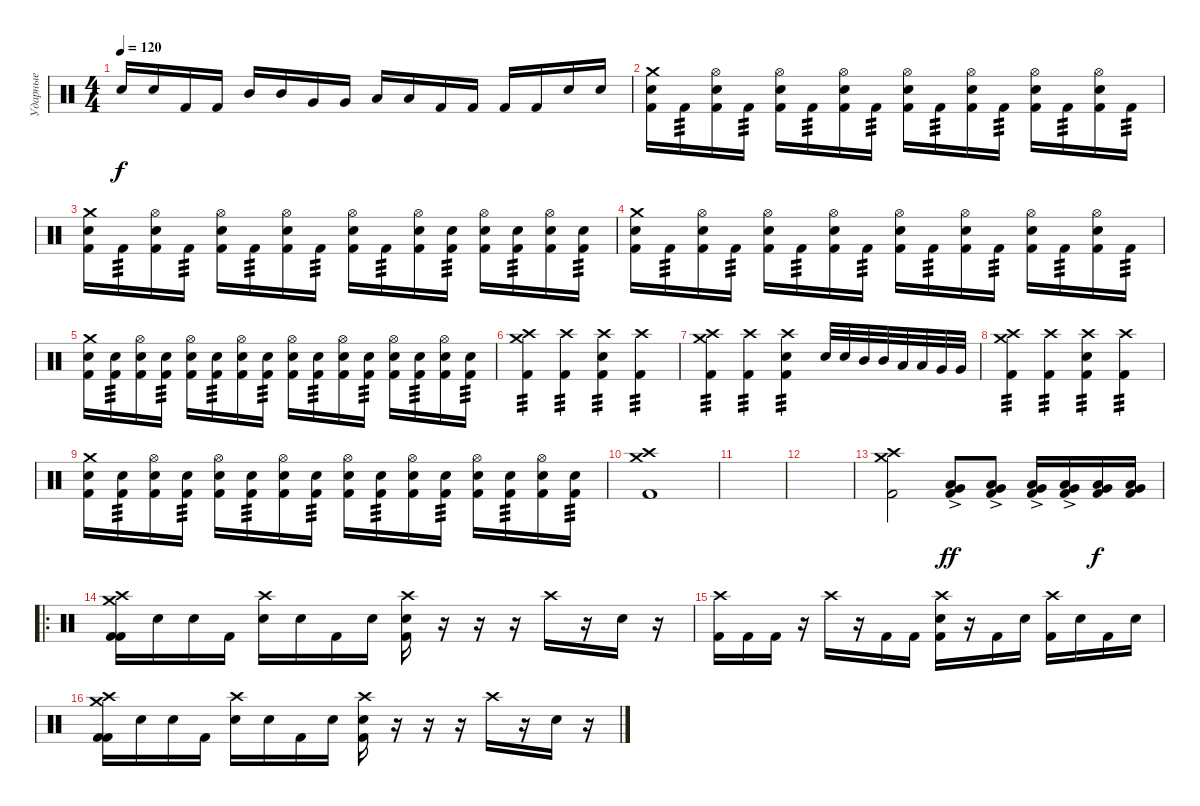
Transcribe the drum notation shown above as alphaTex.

\track ("Ударные" "Ударные") {instrument percussion}
\staff {score}
\articulation defaults
\ts (4 4)
\tempo 120
\clef neutral
\ks c "Snare (hit) 2".16{dy f} "Snare (hit) 2".16 "Kick (hit) 2".16 "Kick (hit) 2".16 "Mid Tom (hit)".16 "Mid Tom (hit)".16 "Very Low Tom (hit)".16 "Very Low Tom (hit)".16 "Low Floor Tom (hit)".16 "Low Floor Tom (hit)".16 "Kick (hit) 2".16 "Kick (hit) 2".16 "Kick (hit) 2".16 "Kick (hit) 2".16 "Electric Snare (hit)".16 "Electric Snare (hit)".16
|
("Snare (hit) 2" "Crash medium (hit)" "Kick (hit) 2").16 "Kick (hit) 2".16{tp 3} ("Hi-Hat (open)" "Snare (hit) 2" "Kick (hit) 2").16 "Kick (hit) 2".16{tp 3} ("Hi-Hat (open)" "Snare (hit) 2" "Kick (hit) 2").16 "Kick (hit) 2".16{tp 3} ("Hi-Hat (open)" "Snare (hit) 2" "Kick (hit) 2").16 "Kick (hit) 2".16{tp 3} ("Hi-Hat (open)" "Snare (hit) 2" "Kick (hit) 2").16 "Kick (hit) 2".16{tp 3} ("Hi-Hat (open)" "Snare (hit) 2" "Kick (hit) 2").16 "Kick (hit) 2".16{tp 3} ("Hi-Hat (open)" "Snare (hit) 2" "Kick (hit) 2").16 "Kick (hit) 2".16{tp 3} ("Hi-Hat (open)" "Snare (hit) 2" "Kick (hit) 2").16 "Kick (hit) 2".16{tp 3} |
("Snare (hit) 2" "Crash medium (hit)" "Kick (hit) 2").16 "Kick (hit) 2".16{tp 3} ("Hi-Hat (open)" "Snare (hit) 2" "Kick (hit) 2").16 "Kick (hit) 2".16{tp 3} ("Hi-Hat (open)" "Snare (hit) 2" "Kick (hit) 2").16 "Kick (hit) 2".16{tp 3} ("Hi-Hat (open)" "Snare (hit) 2" "Kick (hit) 2").16 "Kick (hit) 2".16{tp 3} ("Hi-Hat (open)" "Snare (hit) 2" "Kick (hit) 2").16 "Kick (hit) 2".16{tp 3} ("Hi-Hat (open)" "Snare (hit) 2" "Kick (hit) 2").16 ("Snare (hit) 2" "Kick (hit) 2").16{tp 3} ("Hi-Hat (open)" "Snare (hit) 2" "Kick (hit) 2").16 ("Snare (hit) 2" "Kick (hit) 2").16{tp 3} ("Hi-Hat (open)" "Snare (hit) 2" "Kick (hit) 2").16 ("Snare (hit) 2" "Kick (hit) 2").16{tp 3} |
("Snare (hit) 2" "Crash medium (hit)" "Kick (hit) 2").16 "Kick (hit) 2".16{tp 3} ("Hi-Hat (open)" "Snare (hit) 2" "Kick (hit) 2").16 "Kick (hit) 2".16{tp 3} ("Hi-Hat (open)" "Snare (hit) 2" "Kick (hit) 2").16 "Kick (hit) 2".16{tp 3} ("Hi-Hat (open)" "Snare (hit) 2" "Kick (hit) 2").16 "Kick (hit) 2".16{tp 3} ("Hi-Hat (open)" "Snare (hit) 2" "Kick (hit) 2").16 "Kick (hit) 2".16{tp 3} ("Hi-Hat (open)" "Snare (hit) 2" "Kick (hit) 2").16 "Kick (hit) 2".16{tp 3} ("Hi-Hat (open)" "Snare (hit) 2" "Kick (hit) 2").16 "Kick (hit) 2".16{tp 3} ("Hi-Hat (open)" "Snare (hit) 2" "Kick (hit) 2").16 "Kick (hit) 2".16{tp 3} |
("Snare (hit) 2" "Crash medium (hit)" "Kick (hit) 2").16 ("Snare (hit) 2" "Kick (hit) 2").16{tp 3} ("Hi-Hat (open)" "Snare (hit) 2" "Kick (hit) 2").16 ("Snare (hit) 2" "Kick (hit) 2").16{tp 3} ("Hi-Hat (open)" "Snare (hit) 2" "Kick (hit) 2").16 ("Snare (hit) 2" "Kick (hit) 2").16{tp 3} ("Hi-Hat (open)" "Snare (hit) 2" "Kick (hit) 2").16 ("Snare (hit) 2" "Kick (hit) 2").16{tp 3} ("Hi-Hat (open)" "Snare (hit) 2" "Kick (hit) 2").16 ("Snare (hit) 2" "Kick (hit) 2").16{tp 3} ("Hi-Hat (open)" "Snare (hit) 2" "Kick (hit) 2").16 ("Snare (hit) 2" "Kick (hit) 2").16{tp 3} ("Hi-Hat (open)" "Snare (hit) 2" "Kick (hit) 2").16 ("Snare (hit) 2" "Kick (hit) 2").16{tp 3} ("Hi-Hat (open)" "Snare (hit) 2" "Kick (hit) 2").16 ("Snare (hit) 2" "Kick (hit) 2").16{tp 3} |
("Crash medium (hit)" "Crash high (hit)" "Kick (hit) 2").4{tp 3} ("Crash high (hit)" "Kick (hit) 2").4{tp 3} ("Snare (hit) 2" "Crash high (hit)" "Kick (hit) 2").4{tp 3} ("Crash high (hit)" "Kick (hit) 2").4{tp 3} |
("Crash medium (hit)" "Crash high (hit)" "Kick (hit) 2").4{tp 3} ("Crash high (hit)" "Kick (hit) 2").4{tp 3} ("Snare (hit) 2" "Crash high (hit)" "Kick (hit) 2").4{tp 3} "Snare (hit) 2".32 "Snare (hit) 2".32 "Mid Tom (hit)".32 "Mid Tom (hit)".32 "Low Tom (hit)".32 "Low Tom (hit)".32 "Very Low Tom (hit)".32 "Very Low Tom (hit)".32 |
("Crash medium (hit)" "Crash high (hit)" "Kick (hit) 2").4{tp 3} ("Crash high (hit)" "Kick (hit) 2").4{tp 3} ("Snare (hit) 2" "Crash high (hit)" "Kick (hit) 2").4{tp 3} ("Crash high (hit)" "Kick (hit) 2").4{tp 3} |
("Snare (hit) 2" "Crash medium (hit)" "Kick (hit) 2").16 ("Snare (hit) 2" "Kick (hit) 2").16{tp 3} ("Hi-Hat (open)" "Snare (hit) 2" "Kick (hit) 2").16 ("Snare (hit) 2" "Kick (hit) 2").16{tp 3} ("Hi-Hat (open)" "Snare (hit) 2" "Kick (hit) 2").16 ("Snare (hit) 2" "Kick (hit) 2").16{tp 3} ("Hi-Hat (open)" "Snare (hit) 2" "Kick (hit) 2").16 ("Snare (hit) 2" "Kick (hit) 2").16{tp 3} ("Hi-Hat (open)" "Snare (hit) 2" "Kick (hit) 2").16 ("Snare (hit) 2" "Kick (hit) 2").16{tp 3} ("Hi-Hat (open)" "Snare (hit) 2" "Kick (hit) 2").16 ("Snare (hit) 2" "Kick (hit) 2").16{tp 3} ("Hi-Hat (open)" "Snare (hit) 2" "Kick (hit) 2").16 ("Snare (hit) 2" "Kick (hit) 2").16{tp 3} ("Hi-Hat (open)" "Snare (hit) 2" "Kick (hit) 2").16 ("Snare (hit) 2" "Kick (hit) 2").16{tp 3} |
("Crash medium (hit)" "Kick (hit) 2" "Crash high (hit)").1 |
|
|
("Crash medium (hit)" "Kick (hit) 2" "Crash high (hit)").2 ("Low Floor Tom (hit)"{ac} "Very Low Tom (hit)"{ac} "Kick (hit) 2"{ac}).8{dy ff} ("Low Floor Tom (hit)"{ac} "Very Low Tom (hit)"{ac} "Kick (hit) 2"{ac}).8 ("Low Floor Tom (hit)"{ac} "Very Low Tom (hit)"{ac} "Kick (hit) 2"{ac}).16 ("Low Floor Tom (hit)"{ac} "Very Low Tom (hit)"{ac} "Kick (hit) 2"{ac}).16 ("Very Low Tom (hit)" "Low Floor Tom (hit)" "Kick (hit) 2").16{dy f} ("Very Low Tom (hit)" "Low Floor Tom (hit)" "Kick (hit) 2").16 |
\ro
("Crash medium (hit)" "Kick (hit) 2" "Crash high (hit)" "Kick (hit) 2").16 "Snare (hit)".16 "Snare (hit)".16 "Kick (hit) 2".16 ("Crash high (hit)" "Snare (hit)").16 "Snare (hit)".16 "Kick (hit) 2".16 "Snare (hit)".16 ("Crash high (hit)" "Snare (hit) 2" "Kick (hit) 2").16 r.16 r.16 r.16 "Crash high (hit)".16 r.16 "Snare (hit) 2".16 r.16 |
("Crash high (hit)" "Kick (hit) 2").16 "Kick (hit) 2".16 "Kick (hit) 2".16 r.16 "Crash high (hit)".16 r.16 "Kick (hit) 2".16 "Kick (hit) 2".16 ("Snare (hit) 2" "Crash high (hit)" "Kick (hit) 2").16 r.16 "Kick (hit) 2".16 "Snare (hit)".16 ("Crash high (hit)" "Kick (hit) 2").16 "Snare (hit)".16 "Kick (hit) 2".16 "Snare (hit)".16 |
("Crash medium (hit)" "Kick (hit) 2" "Crash high (hit)" "Kick (hit) 2").16 "Snare (hit)".16 "Snare (hit)".16 "Kick (hit) 2".16 ("Crash high (hit)" "Snare (hit)").16 "Snare (hit)".16 "Kick (hit) 2".16 "Snare (hit)".16 ("Crash high (hit)" "Snare (hit) 2" "Kick (hit) 2").16 r.16 r.16 r.16 "Crash high (hit)".16 r.16 "Snare (hit) 2".16 r.16
